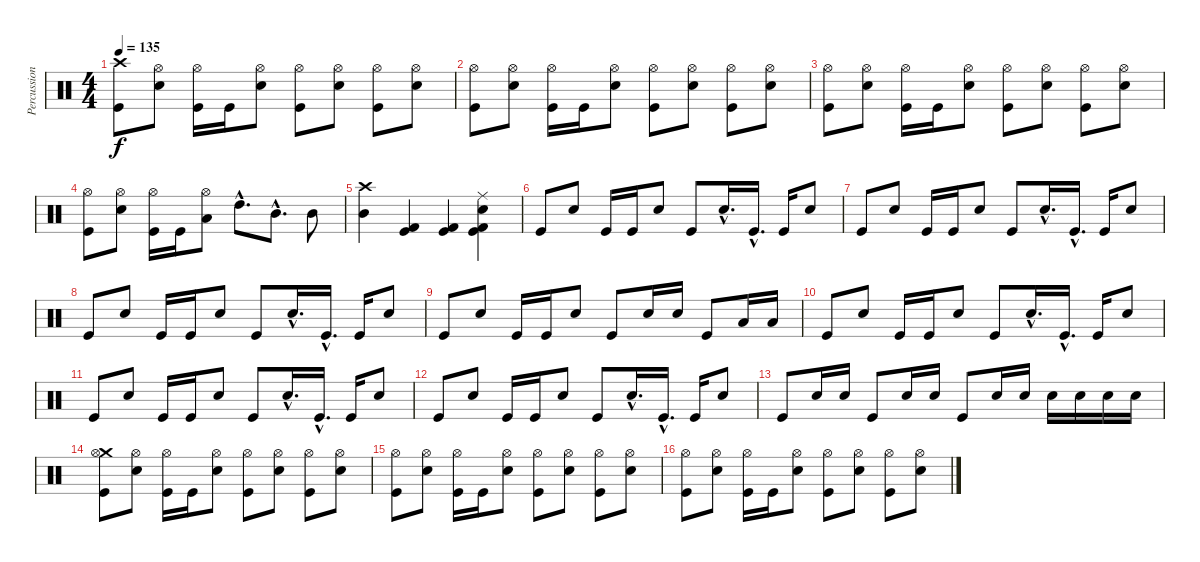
\track ("Percussions" "Percussion") {instrument percussion}
\staff {score}
\articulation defaults
\ts (4 4)
\tempo 135
\clef neutral
\ks c
("Crash high (hit)" "Kick (hit)").8{dy f} ("Hi-Hat (open)" "Snare (hit) 2").8 ("Hi-Hat (open)" "Kick (hit)").16 "Kick (hit)".16 ("Hi-Hat (open)" "Snare (hit) 2").8 ("Hi-Hat (open)" "Kick (hit)").8 ("Hi-Hat (open)" "Snare (hit) 2").8 ("Hi-Hat (open)" "Kick (hit)").8 ("Hi-Hat (open)" "Snare (hit) 2").8 |
("Hi-Hat (open)" "Kick (hit)").8 ("Hi-Hat (open)" "Snare (hit) 2").8 ("Hi-Hat (open)" "Kick (hit)").16 "Kick (hit)".16 ("Hi-Hat (open)" "Snare (hit) 2").8 ("Hi-Hat (open)" "Kick (hit)").8 ("Hi-Hat (open)" "Snare (hit) 2").8 ("Hi-Hat (open)" "Kick (hit)").8 ("Hi-Hat (open)" "Snare (hit) 2").8 |
("Hi-Hat (open)" "Kick (hit)").8 ("Hi-Hat (open)" "Snare (hit) 2").8 ("Hi-Hat (open)" "Kick (hit)").16 "Kick (hit)".16 ("Hi-Hat (open)" "Snare (hit) 2").8 ("Hi-Hat (open)" "Kick (hit)").8 ("Hi-Hat (open)" "Snare (hit) 2").8 ("Hi-Hat (open)" "Kick (hit)").8 ("Hi-Hat (open)" "Snare (hit) 2").8 |
("Hi-Hat (open)" "Kick (hit)").8 ("Hi-Hat (open)" "Snare (hit) 2").8 ("Hi-Hat (open)" "Kick (hit)").16 "Kick (hit)".16 ("Hi-Hat (open)" "Low Floor Tom (hit)").8 "High Tom (hit)"{hac}.8{d} "Mid Tom (hit)"{hac}.8{d} "Mid Tom (hit)".8 |
("Crash high (hit)" "Mid Tom (hit)").4 ("Kick (hit)" "Kick (hit) 2").4 ("Kick (hit)" "Kick (hit) 2").4 ("Ride (middle)" "Snare (hit) 2" "Kick (hit)" "Kick (hit) 2").4 |
"Kick (hit)".8 "Snare (hit) 2".8 "Kick (hit)".16 "Kick (hit)".16 "Snare (hit) 2".8 "Kick (hit)".8 "Snare (hit) 2"{hac}.16{d} "Kick (hit)"{hac}.16{d} "Kick (hit)".16 "Snare (hit) 2".8 |
"Kick (hit)".8 "Snare (hit) 2".8 "Kick (hit)".16 "Kick (hit)".16 "Snare (hit) 2".8 "Kick (hit)".8 "Snare (hit) 2"{hac}.16{d} "Kick (hit)"{hac}.16{d} "Kick (hit)".16 "Snare (hit) 2".8 |
"Kick (hit)".8 "Snare (hit) 2".8 "Kick (hit)".16 "Kick (hit)".16 "Snare (hit) 2".8 "Kick (hit)".8 "Snare (hit) 2"{hac}.16{d} "Kick (hit)"{hac}.16{d} "Kick (hit)".16 "Snare (hit) 2".8 |
"Kick (hit)".8 "Snare (hit) 2".8 "Kick (hit)".16 "Kick (hit)".16 "Snare (hit) 2".8 "Kick (hit)".8 "Snare (hit) 2".16 "Snare (hit) 2".16 "Kick (hit)".8 "Low Tom (hit)".16 "Low Tom (hit)".16 |
"Kick (hit)".8 "Snare (hit) 2".8 "Kick (hit)".16 "Kick (hit)".16 "Snare (hit) 2".8 "Kick (hit)".8 "Snare (hit) 2"{hac}.16{d} "Kick (hit)"{hac}.16{d} "Kick (hit)".16 "Snare (hit) 2".8 |
"Kick (hit)".8 "Snare (hit) 2".8 "Kick (hit)".16 "Kick (hit)".16 "Snare (hit) 2".8 "Kick (hit)".8 "Snare (hit) 2"{hac}.16{d} "Kick (hit)"{hac}.16{d} "Kick (hit)".16 "Snare (hit) 2".8 |
"Kick (hit)".8 "Snare (hit) 2".8 "Kick (hit)".16 "Kick (hit)".16 "Snare (hit) 2".8 "Kick (hit)".8 "Snare (hit) 2"{hac}.16{d} "Kick (hit)"{hac}.16{d} "Kick (hit)".16 "Snare (hit) 2".8 |
"Kick (hit)".8 "Snare (hit) 2".16 "Snare (hit) 2".16 "Kick (hit)".8 "Snare (hit) 2".16 "Snare (hit) 2".16 "Kick (hit)".8 "Snare (hit) 2".16 "Snare (hit) 2".16 "Snare (hit) 2".16 "Snare (hit) 2".16 "Snare (hit) 2".16 "Snare (hit) 2".16 |
("Crash medium (hit)" "Hi-Hat (open)" "Kick (hit)").8 ("Hi-Hat (open)" "Snare (hit) 2").8 ("Hi-Hat (open)" "Kick (hit)").16 "Kick (hit)".16 ("Hi-Hat (open)" "Snare (hit) 2").8 ("Hi-Hat (open)" "Kick (hit)").8 ("Hi-Hat (open)" "Snare (hit) 2").8 ("Hi-Hat (open)" "Kick (hit)").8 ("Hi-Hat (open)" "Snare (hit) 2").8 |
("Hi-Hat (open)" "Kick (hit)").8 ("Hi-Hat (open)" "Snare (hit) 2").8 ("Hi-Hat (open)" "Kick (hit)").16 "Kick (hit)".16 ("Hi-Hat (open)" "Snare (hit) 2").8 ("Hi-Hat (open)" "Kick (hit)").8 ("Hi-Hat (open)" "Snare (hit) 2").8 ("Hi-Hat (open)" "Kick (hit)").8 ("Hi-Hat (open)" "Snare (hit) 2").8 |
("Hi-Hat (open)" "Kick (hit)").8 ("Hi-Hat (open)" "Snare (hit) 2").8 ("Hi-Hat (open)" "Kick (hit)").16 "Kick (hit)".16 ("Hi-Hat (open)" "Snare (hit) 2").8 ("Hi-Hat (open)" "Kick (hit)").8 ("Hi-Hat (open)" "Snare (hit) 2").8 ("Hi-Hat (open)" "Kick (hit)").8 ("Hi-Hat (open)" "Snare (hit) 2").8
